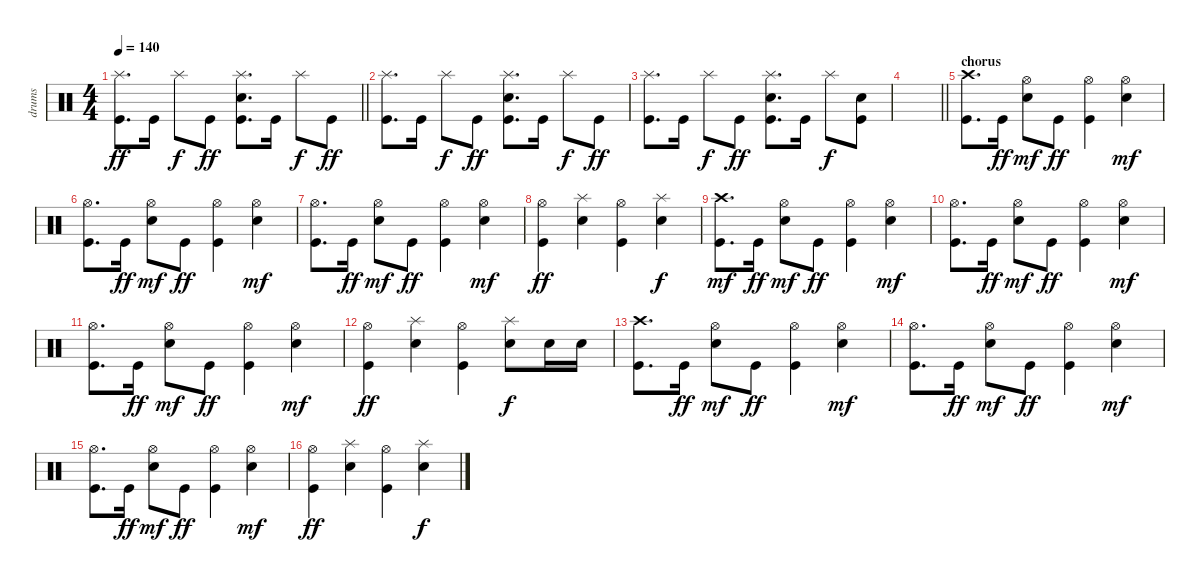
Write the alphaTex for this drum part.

\track ("drums" "drums") {instrument percussion}
\staff {score}
\articulation defaults
\ts (4 4)
\tempo 140
\clef neutral
\barLineRight lightlight
\ks c
("Splash (hit)" "Kick (hit)").8{d dy ff} "Kick (hit)".16 "Splash (hit)".8{dy f} "Kick (hit)".8{dy ff} ("Splash (hit)" "Electric Snare (hit)" "Kick (hit)").8{d} "Kick (hit)".16 "Splash (hit)".8{dy f} "Kick (hit)".8{dy ff} |
("Splash (hit)" "Kick (hit)").8{d} "Kick (hit)".16 "Splash (hit)".8{dy f} "Kick (hit)".8{dy ff} ("Splash (hit)" "Electric Snare (hit)" "Kick (hit)").8{d} "Kick (hit)".16 "Splash (hit)".8{dy f} "Kick (hit)".8{dy ff} |
("Splash (hit)" "Kick (hit)").8{d} "Kick (hit)".16 "Splash (hit)".8{dy f} "Kick (hit)".8{dy ff} ("Splash (hit)" "Electric Snare (hit)" "Kick (hit)").8{d} "Kick (hit)".16 "Splash (hit)".8{dy f} ("Electric Snare (hit)" "Kick (hit)").8 |
\barLineRight lightlight
|
\section ("" "chorus")
("Crash high (hit)" "Kick (hit)").8{d} "Kick (hit)".16{dy ff} ("Hi-Hat (open)" "Electric Snare (hit)").8{dy mf} "Kick (hit)".8{dy ff} ("Hi-Hat (open)" "Kick (hit)").4 ("Hi-Hat (open)" "Electric Snare (hit)").4{dy mf} |
("Hi-Hat (open)" "Kick (hit)").8{d} "Kick (hit)".16{dy ff} ("Hi-Hat (open)" "Electric Snare (hit)").8{dy mf} "Kick (hit)".8{dy ff} ("Hi-Hat (open)" "Kick (hit)").4 ("Hi-Hat (open)" "Electric Snare (hit)").4{dy mf} |
("Hi-Hat (open)" "Kick (hit)").8{d} "Kick (hit)".16{dy ff} ("Hi-Hat (open)" "Electric Snare (hit)").8{dy mf} "Kick (hit)".8{dy ff} ("Hi-Hat (open)" "Kick (hit)").4 ("Hi-Hat (open)" "Electric Snare (hit)").4{dy mf} |
("Hi-Hat (open)" "Kick (hit)").4{dy ff} ("Splash (hit)" "Electric Snare (hit)").4 ("Hi-Hat (open)" "Kick (hit)").4 ("Splash (hit)" "Electric Snare (hit)").4{dy f} |
("Crash high (hit)" "Kick (hit)").8{d dy mf} "Kick (hit)".16{dy ff} ("Hi-Hat (open)" "Electric Snare (hit)").8{dy mf} "Kick (hit)".8{dy ff} ("Hi-Hat (open)" "Kick (hit)").4 ("Hi-Hat (open)" "Electric Snare (hit)").4{dy mf} |
("Hi-Hat (open)" "Kick (hit)").8{d} "Kick (hit)".16{dy ff} ("Hi-Hat (open)" "Electric Snare (hit)").8{dy mf} "Kick (hit)".8{dy ff} ("Hi-Hat (open)" "Kick (hit)").4 ("Hi-Hat (open)" "Electric Snare (hit)").4{dy mf} |
("Hi-Hat (open)" "Kick (hit)").8{d} "Kick (hit)".16{dy ff} ("Hi-Hat (open)" "Electric Snare (hit)").8{dy mf} "Kick (hit)".8{dy ff} ("Hi-Hat (open)" "Kick (hit)").4 ("Hi-Hat (open)" "Electric Snare (hit)").4{dy mf} |
("Hi-Hat (open)" "Kick (hit)").4{dy ff} ("Splash (hit)" "Electric Snare (hit)").4 ("Hi-Hat (open)" "Kick (hit)").4 ("Splash (hit)" "Electric Snare (hit)").8{dy f} "Electric Snare (hit)".16 "Electric Snare (hit)".16 |
("Crash high (hit)" "Kick (hit)").8{d} "Kick (hit)".16{dy ff} ("Hi-Hat (open)" "Electric Snare (hit)").8{dy mf} "Kick (hit)".8{dy ff} ("Hi-Hat (open)" "Kick (hit)").4 ("Hi-Hat (open)" "Electric Snare (hit)").4{dy mf} |
("Hi-Hat (open)" "Kick (hit)").8{d} "Kick (hit)".16{dy ff} ("Hi-Hat (open)" "Electric Snare (hit)").8{dy mf} "Kick (hit)".8{dy ff} ("Hi-Hat (open)" "Kick (hit)").4 ("Hi-Hat (open)" "Electric Snare (hit)").4{dy mf} |
("Hi-Hat (open)" "Kick (hit)").8{d} "Kick (hit)".16{dy ff} ("Hi-Hat (open)" "Electric Snare (hit)").8{dy mf} "Kick (hit)".8{dy ff} ("Hi-Hat (open)" "Kick (hit)").4 ("Hi-Hat (open)" "Electric Snare (hit)").4{dy mf} |
("Hi-Hat (open)" "Kick (hit)").4{dy ff} ("Splash (hit)" "Electric Snare (hit)").4 ("Hi-Hat (open)" "Kick (hit)").4 ("Splash (hit)" "Electric Snare (hit)").4{dy f}
